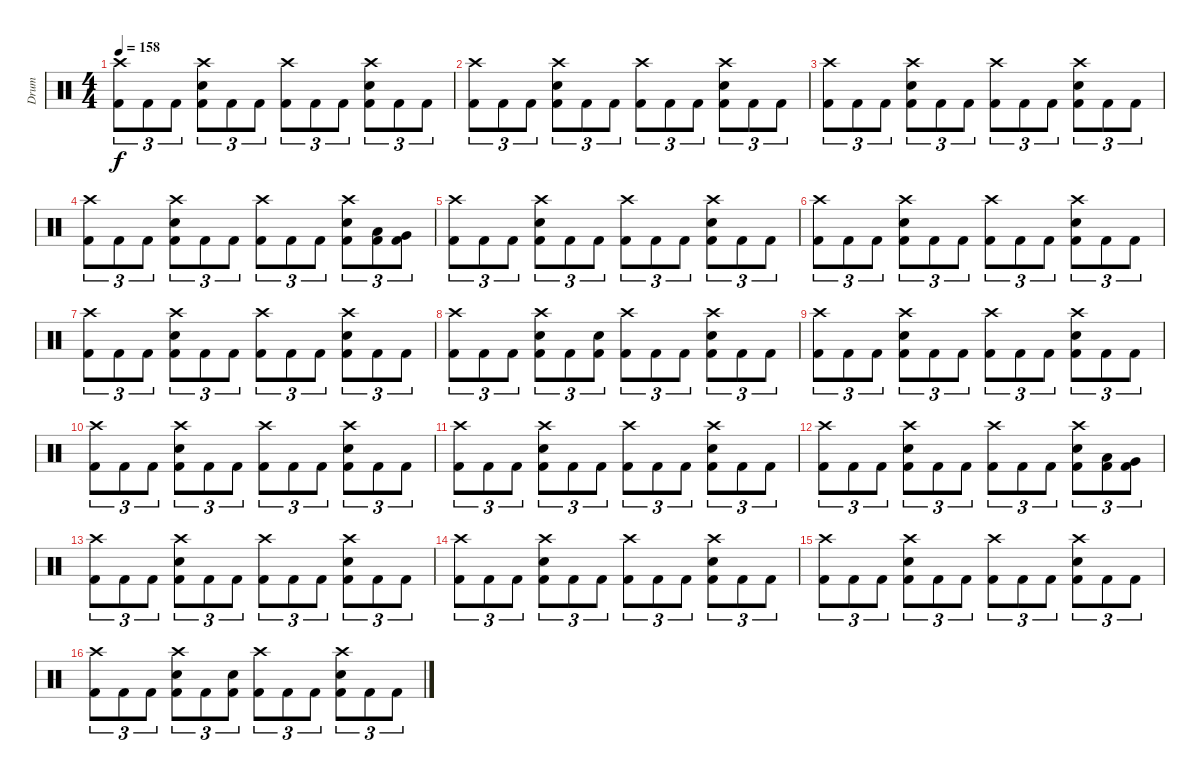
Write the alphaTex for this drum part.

\track ("Drum" "Drum") {instrument percussion}
\staff {score}
\articulation defaults
\ts (4 4)
\tempo 158
\clef neutral
\ks c
("Crash high (hit)" "Kick (hit) 2").8{tu (3 2) dy f} "Kick (hit) 2".8{tu (3 2)} "Kick (hit) 2".8{tu (3 2)} ("Crash high (hit)" "Electric Snare (hit)" "Kick (hit) 2").8{tu (3 2)} "Kick (hit) 2".8{tu (3 2)} "Kick (hit) 2".8{tu (3 2)} ("Crash high (hit)" "Kick (hit) 2").8{tu (3 2)} "Kick (hit) 2".8{tu (3 2)} "Kick (hit) 2".8{tu (3 2)} ("Crash high (hit)" "Electric Snare (hit)" "Kick (hit) 2").8{tu (3 2)} "Kick (hit) 2".8{tu (3 2)} "Kick (hit) 2".8{tu (3 2)} |
("Crash high (hit)" "Kick (hit) 2").8{tu (3 2)} "Kick (hit) 2".8{tu (3 2)} "Kick (hit) 2".8{tu (3 2)} ("Crash high (hit)" "Electric Snare (hit)" "Kick (hit) 2").8{tu (3 2)} "Kick (hit) 2".8{tu (3 2)} "Kick (hit) 2".8{tu (3 2)} ("Crash high (hit)" "Kick (hit) 2").8{tu (3 2)} "Kick (hit) 2".8{tu (3 2)} "Kick (hit) 2".8{tu (3 2)} ("Crash high (hit)" "Electric Snare (hit)" "Kick (hit) 2").8{tu (3 2)} "Kick (hit) 2".8{tu (3 2)} "Kick (hit) 2".8{tu (3 2)} |
("Crash high (hit)" "Kick (hit) 2").8{tu (3 2)} "Kick (hit) 2".8{tu (3 2)} "Kick (hit) 2".8{tu (3 2)} ("Crash high (hit)" "Electric Snare (hit)" "Kick (hit) 2").8{tu (3 2)} "Kick (hit) 2".8{tu (3 2)} "Kick (hit) 2".8{tu (3 2)} ("Crash high (hit)" "Kick (hit) 2").8{tu (3 2)} "Kick (hit) 2".8{tu (3 2)} "Kick (hit) 2".8{tu (3 2)} ("Crash high (hit)" "Electric Snare (hit)" "Kick (hit) 2").8{tu (3 2)} "Kick (hit) 2".8{tu (3 2)} "Kick (hit) 2".8{tu (3 2)} |
("Crash high (hit)" "Kick (hit) 2").8{tu (3 2)} "Kick (hit) 2".8{tu (3 2)} "Kick (hit) 2".8{tu (3 2)} ("Crash high (hit)" "Electric Snare (hit)" "Kick (hit) 2").8{tu (3 2)} "Kick (hit) 2".8{tu (3 2)} "Kick (hit) 2".8{tu (3 2)} ("Crash high (hit)" "Kick (hit) 2").8{tu (3 2)} "Kick (hit) 2".8{tu (3 2)} "Kick (hit) 2".8{tu (3 2)} ("Crash high (hit)" "Electric Snare (hit)" "Kick (hit) 2").8{tu (3 2)} ("Low Tom (hit)" "Kick (hit) 2").8{tu (3 2)} ("Very Low Tom (hit)" "Kick (hit) 2").8{tu (3 2)} |
("Crash high (hit)" "Kick (hit) 2").8{tu (3 2)} "Kick (hit) 2".8{tu (3 2)} "Kick (hit) 2".8{tu (3 2)} ("Crash high (hit)" "Electric Snare (hit)" "Kick (hit) 2").8{tu (3 2)} "Kick (hit) 2".8{tu (3 2)} "Kick (hit) 2".8{tu (3 2)} ("Crash high (hit)" "Kick (hit) 2").8{tu (3 2)} "Kick (hit) 2".8{tu (3 2)} "Kick (hit) 2".8{tu (3 2)} ("Crash high (hit)" "Electric Snare (hit)" "Kick (hit) 2").8{tu (3 2)} "Kick (hit) 2".8{tu (3 2)} "Kick (hit) 2".8{tu (3 2)} |
("Crash high (hit)" "Kick (hit) 2").8{tu (3 2)} "Kick (hit) 2".8{tu (3 2)} "Kick (hit) 2".8{tu (3 2)} ("Crash high (hit)" "Electric Snare (hit)" "Kick (hit) 2").8{tu (3 2)} "Kick (hit) 2".8{tu (3 2)} "Kick (hit) 2".8{tu (3 2)} ("Crash high (hit)" "Kick (hit) 2").8{tu (3 2)} "Kick (hit) 2".8{tu (3 2)} "Kick (hit) 2".8{tu (3 2)} ("Crash high (hit)" "Electric Snare (hit)" "Kick (hit) 2").8{tu (3 2)} "Kick (hit) 2".8{tu (3 2)} "Kick (hit) 2".8{tu (3 2)} |
("Crash high (hit)" "Kick (hit) 2").8{tu (3 2)} "Kick (hit) 2".8{tu (3 2)} "Kick (hit) 2".8{tu (3 2)} ("Crash high (hit)" "Electric Snare (hit)" "Kick (hit) 2").8{tu (3 2)} "Kick (hit) 2".8{tu (3 2)} "Kick (hit) 2".8{tu (3 2)} ("Crash high (hit)" "Kick (hit) 2").8{tu (3 2)} "Kick (hit) 2".8{tu (3 2)} "Kick (hit) 2".8{tu (3 2)} ("Crash high (hit)" "Electric Snare (hit)" "Kick (hit) 2").8{tu (3 2)} "Kick (hit) 2".8{tu (3 2)} "Kick (hit) 2".8{tu (3 2)} |
("Crash high (hit)" "Kick (hit) 2").8{tu (3 2)} "Kick (hit) 2".8{tu (3 2)} "Kick (hit) 2".8{tu (3 2)} ("Crash high (hit)" "Electric Snare (hit)" "Kick (hit) 2").8{tu (3 2)} "Kick (hit) 2".8{tu (3 2)} ("Electric Snare (hit)" "Kick (hit) 2").8{tu (3 2)} ("Crash high (hit)" "Kick (hit) 2").8{tu (3 2)} "Kick (hit) 2".8{tu (3 2)} "Kick (hit) 2".8{tu (3 2)} ("Crash high (hit)" "Electric Snare (hit)" "Kick (hit) 2").8{tu (3 2)} "Kick (hit) 2".8{tu (3 2)} "Kick (hit) 2".8{tu (3 2)} |
("Crash high (hit)" "Kick (hit) 2").8{tu (3 2)} "Kick (hit) 2".8{tu (3 2)} "Kick (hit) 2".8{tu (3 2)} ("Crash high (hit)" "Electric Snare (hit)" "Kick (hit) 2").8{tu (3 2)} "Kick (hit) 2".8{tu (3 2)} "Kick (hit) 2".8{tu (3 2)} ("Crash high (hit)" "Kick (hit) 2").8{tu (3 2)} "Kick (hit) 2".8{tu (3 2)} "Kick (hit) 2".8{tu (3 2)} ("Crash high (hit)" "Electric Snare (hit)" "Kick (hit) 2").8{tu (3 2)} "Kick (hit) 2".8{tu (3 2)} "Kick (hit) 2".8{tu (3 2)} |
("Crash high (hit)" "Kick (hit) 2").8{tu (3 2)} "Kick (hit) 2".8{tu (3 2)} "Kick (hit) 2".8{tu (3 2)} ("Crash high (hit)" "Electric Snare (hit)" "Kick (hit) 2").8{tu (3 2)} "Kick (hit) 2".8{tu (3 2)} "Kick (hit) 2".8{tu (3 2)} ("Crash high (hit)" "Kick (hit) 2").8{tu (3 2)} "Kick (hit) 2".8{tu (3 2)} "Kick (hit) 2".8{tu (3 2)} ("Crash high (hit)" "Electric Snare (hit)" "Kick (hit) 2").8{tu (3 2)} "Kick (hit) 2".8{tu (3 2)} "Kick (hit) 2".8{tu (3 2)} |
("Crash high (hit)" "Kick (hit) 2").8{tu (3 2)} "Kick (hit) 2".8{tu (3 2)} "Kick (hit) 2".8{tu (3 2)} ("Crash high (hit)" "Electric Snare (hit)" "Kick (hit) 2").8{tu (3 2)} "Kick (hit) 2".8{tu (3 2)} "Kick (hit) 2".8{tu (3 2)} ("Crash high (hit)" "Kick (hit) 2").8{tu (3 2)} "Kick (hit) 2".8{tu (3 2)} "Kick (hit) 2".8{tu (3 2)} ("Crash high (hit)" "Electric Snare (hit)" "Kick (hit) 2").8{tu (3 2)} "Kick (hit) 2".8{tu (3 2)} "Kick (hit) 2".8{tu (3 2)} |
("Crash high (hit)" "Kick (hit) 2").8{tu (3 2)} "Kick (hit) 2".8{tu (3 2)} "Kick (hit) 2".8{tu (3 2)} ("Crash high (hit)" "Electric Snare (hit)" "Kick (hit) 2").8{tu (3 2)} "Kick (hit) 2".8{tu (3 2)} "Kick (hit) 2".8{tu (3 2)} ("Crash high (hit)" "Kick (hit) 2").8{tu (3 2)} "Kick (hit) 2".8{tu (3 2)} "Kick (hit) 2".8{tu (3 2)} ("Crash high (hit)" "Electric Snare (hit)" "Kick (hit) 2").8{tu (3 2)} ("Low Tom (hit)" "Kick (hit) 2").8{tu (3 2)} ("Very Low Tom (hit)" "Kick (hit) 2").8{tu (3 2)} |
("Crash high (hit)" "Kick (hit) 2").8{tu (3 2)} "Kick (hit) 2".8{tu (3 2)} "Kick (hit) 2".8{tu (3 2)} ("Crash high (hit)" "Electric Snare (hit)" "Kick (hit) 2").8{tu (3 2)} "Kick (hit) 2".8{tu (3 2)} "Kick (hit) 2".8{tu (3 2)} ("Crash high (hit)" "Kick (hit) 2").8{tu (3 2)} "Kick (hit) 2".8{tu (3 2)} "Kick (hit) 2".8{tu (3 2)} ("Crash high (hit)" "Electric Snare (hit)" "Kick (hit) 2").8{tu (3 2)} "Kick (hit) 2".8{tu (3 2)} "Kick (hit) 2".8{tu (3 2)} |
("Crash high (hit)" "Kick (hit) 2").8{tu (3 2)} "Kick (hit) 2".8{tu (3 2)} "Kick (hit) 2".8{tu (3 2)} ("Crash high (hit)" "Electric Snare (hit)" "Kick (hit) 2").8{tu (3 2)} "Kick (hit) 2".8{tu (3 2)} "Kick (hit) 2".8{tu (3 2)} ("Crash high (hit)" "Kick (hit) 2").8{tu (3 2)} "Kick (hit) 2".8{tu (3 2)} "Kick (hit) 2".8{tu (3 2)} ("Crash high (hit)" "Electric Snare (hit)" "Kick (hit) 2").8{tu (3 2)} "Kick (hit) 2".8{tu (3 2)} "Kick (hit) 2".8{tu (3 2)} |
("Crash high (hit)" "Kick (hit) 2").8{tu (3 2)} "Kick (hit) 2".8{tu (3 2)} "Kick (hit) 2".8{tu (3 2)} ("Crash high (hit)" "Electric Snare (hit)" "Kick (hit) 2").8{tu (3 2)} "Kick (hit) 2".8{tu (3 2)} "Kick (hit) 2".8{tu (3 2)} ("Crash high (hit)" "Kick (hit) 2").8{tu (3 2)} "Kick (hit) 2".8{tu (3 2)} "Kick (hit) 2".8{tu (3 2)} ("Crash high (hit)" "Electric Snare (hit)" "Kick (hit) 2").8{tu (3 2)} "Kick (hit) 2".8{tu (3 2)} "Kick (hit) 2".8{tu (3 2)} |
("Crash high (hit)" "Kick (hit) 2").8{tu (3 2)} "Kick (hit) 2".8{tu (3 2)} "Kick (hit) 2".8{tu (3 2)} ("Crash high (hit)" "Electric Snare (hit)" "Kick (hit) 2").8{tu (3 2)} "Kick (hit) 2".8{tu (3 2)} ("Electric Snare (hit)" "Kick (hit) 2").8{tu (3 2)} ("Crash high (hit)" "Kick (hit) 2").8{tu (3 2)} "Kick (hit) 2".8{tu (3 2)} "Kick (hit) 2".8{tu (3 2)} ("Crash high (hit)" "Electric Snare (hit)" "Kick (hit) 2").8{tu (3 2)} "Kick (hit) 2".8{tu (3 2)} "Kick (hit) 2".8{tu (3 2)}
